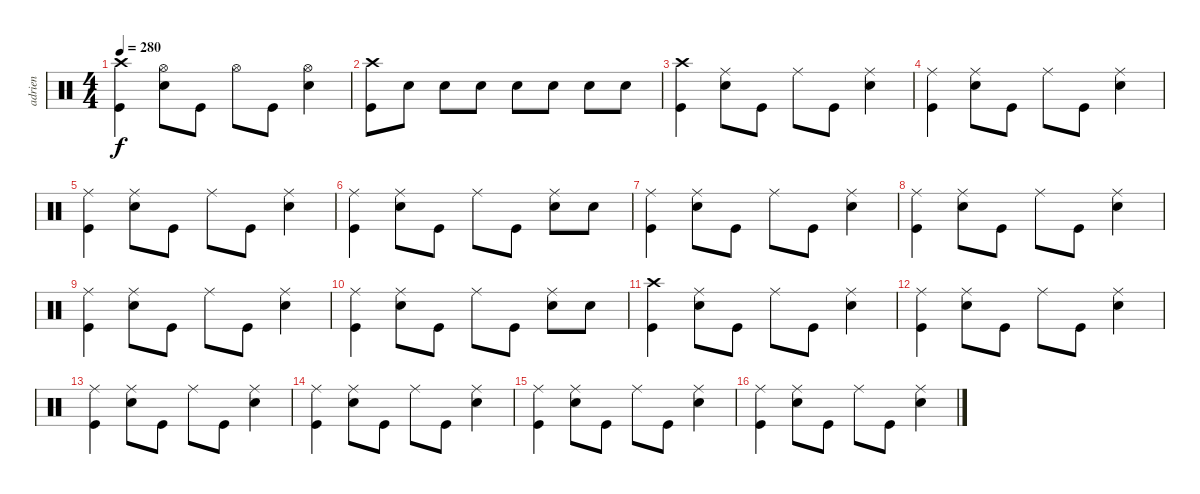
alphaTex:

\track ("adrien" "adrien") {instrument percussion}
\staff {score}
\articulation defaults
\ts (4 4)
\tempo 280
\clef neutral
\ks c
("Crash high (hit)" "Kick (hit)").4{dy f} ("Hi-Hat (open)" "Snare (hit) 2").8 "Kick (hit)".8 "Hi-Hat (open)".8 "Kick (hit)".8 ("Hi-Hat (open)" "Snare (hit) 2").4 |
("Crash high (hit)" "Kick (hit)").8 "Snare (hit) 2".8 "Snare (hit) 2".8 "Snare (hit) 2".8 "Snare (hit) 2".8 "Snare (hit) 2".8 "Snare (hit) 2".8 "Snare (hit) 2".8 |
("Crash high (hit)" "Kick (hit)").4 ("Ride (middle)" "Snare (hit) 2").8 "Kick (hit)".8 "Ride (middle)".8 "Kick (hit)".8 ("Ride (middle)" "Snare (hit) 2").4 |
("Ride (middle)" "Kick (hit)").4 ("Ride (middle)" "Snare (hit) 2").8 "Kick (hit)".8 "Ride (middle)".8 "Kick (hit)".8 ("Ride (middle)" "Snare (hit) 2").4 |
("Ride (middle)" "Kick (hit)").4 ("Ride (middle)" "Snare (hit) 2").8 "Kick (hit)".8 "Ride (middle)".8 "Kick (hit)".8 ("Ride (middle)" "Snare (hit) 2").4 |
("Ride (middle)" "Kick (hit)").4 ("Ride (middle)" "Snare (hit) 2").8 "Kick (hit)".8 "Ride (middle)".8 "Kick (hit)".8 ("Ride (middle)" "Snare (hit) 2").8 "Snare (hit) 2".8 |
("Ride (middle)" "Kick (hit)").4 ("Ride (middle)" "Snare (hit) 2").8 "Kick (hit)".8 "Ride (middle)".8 "Kick (hit)".8 ("Ride (middle)" "Snare (hit) 2").4 |
("Ride (middle)" "Kick (hit)").4 ("Ride (middle)" "Snare (hit) 2").8 "Kick (hit)".8 "Ride (middle)".8 "Kick (hit)".8 ("Ride (middle)" "Snare (hit) 2").4 |
("Ride (middle)" "Kick (hit)").4 ("Ride (middle)" "Snare (hit) 2").8 "Kick (hit)".8 "Ride (middle)".8 "Kick (hit)".8 ("Ride (middle)" "Snare (hit) 2").4 |
("Ride (middle)" "Kick (hit)").4 ("Ride (middle)" "Snare (hit) 2").8 "Kick (hit)".8 "Ride (middle)".8 "Kick (hit)".8 ("Ride (middle)" "Snare (hit) 2").8 "Snare (hit) 2".8 |
("Crash high (hit)" "Kick (hit)").4 ("Ride (middle)" "Snare (hit) 2").8 "Kick (hit)".8 "Ride (middle)".8 "Kick (hit)".8 ("Ride (middle)" "Snare (hit) 2").4 |
("Ride (middle)" "Kick (hit)").4 ("Ride (middle)" "Snare (hit) 2").8 "Kick (hit)".8 "Ride (middle)".8 "Kick (hit)".8 ("Ride (middle)" "Snare (hit) 2").4 |
("Ride (middle)" "Kick (hit)").4 ("Ride (middle)" "Snare (hit) 2").8 "Kick (hit)".8 "Ride (middle)".8 "Kick (hit)".8 ("Ride (middle)" "Snare (hit) 2").4 |
("Ride (middle)" "Kick (hit)").4 ("Ride (middle)" "Snare (hit) 2").8 "Kick (hit)".8 "Ride (middle)".8 "Kick (hit)".8 ("Ride (middle)" "Snare (hit) 2").4 |
("Ride (middle)" "Kick (hit)").4 ("Ride (middle)" "Snare (hit) 2").8 "Kick (hit)".8 "Ride (middle)".8 "Kick (hit)".8 ("Ride (middle)" "Snare (hit) 2").4 |
("Ride (middle)" "Kick (hit)").4 ("Ride (middle)" "Snare (hit) 2").8 "Kick (hit)".8 "Ride (middle)".8 "Kick (hit)".8 ("Ride (middle)" "Snare (hit) 2").4
